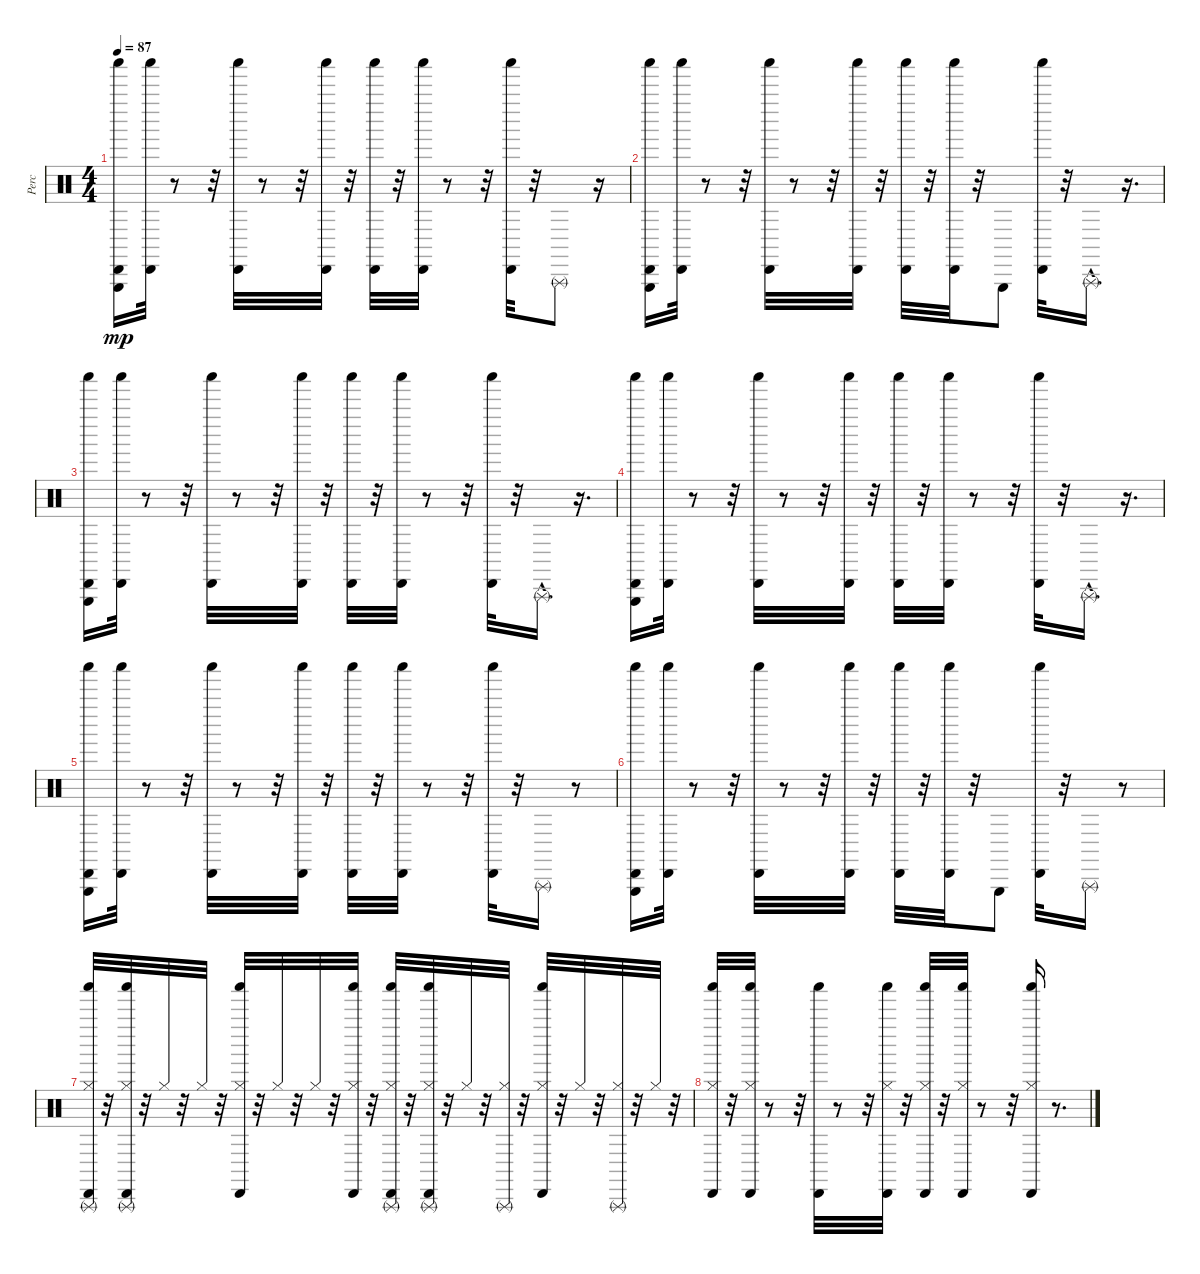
\track ("Perc" "Perc") {instrument percussion}
\staff {score}
\articulation defaults
\ts (4 4)
\tempo 87
\clef neutral
\ks c
("Cabasa (hit)" "Shaker (hit)" "Triangle (hit)").16{dy mp} ("Shaker (hit)" "Cabasa (hit)").32 r.8 r.32 ("Shaker (hit)" "Cabasa (hit)").32 r.8 r.32 ("Shaker (hit)" "Cabasa (hit)").32 r.32 ("Shaker (hit)" "Cabasa (hit)").32 r.32 ("Shaker (hit)" "Cabasa (hit)").32 r.8 r.32 ("Shaker (hit)" "Cabasa (hit)").32 r.32 "Triangle (rnute)".8 r.16 |
("Cabasa (hit)" "Shaker (hit)" "Triangle (hit)").16 ("Shaker (hit)" "Cabasa (hit)").32 r.8 r.32 ("Cabasa (hit)" "Shaker (hit)").32 r.8 r.32 ("Cabasa (hit)" "Shaker (hit)").32 r.32 ("Shaker (hit)" "Cabasa (hit)").32 r.32 ("Shaker (hit)" "Cabasa (hit)").32 r.32 "Triangle (hit)".8 ("Shaker (hit)" "Cabasa (hit)").32 r.32 "Triangle (rnute)"{hac}.16{d} r.16{d} |
("Cabasa (hit)" "Shaker (hit)" "Triangle (hit)").16 ("Shaker (hit)" "Cabasa (hit)").32 r.8 r.32 ("Shaker (hit)" "Cabasa (hit)").32 r.8 r.32 ("Shaker (hit)" "Cabasa (hit)").32 r.32 ("Shaker (hit)" "Cabasa (hit)").32 r.32 ("Shaker (hit)" "Cabasa (hit)").32 r.8 r.32 ("Shaker (hit)" "Cabasa (hit)").32 r.32 "Triangle (rnute)"{hac}.16{d} r.16{d} |
("Cabasa (hit)" "Shaker (hit)" "Triangle (hit)").16 ("Shaker (hit)" "Cabasa (hit)").32 r.8 r.32 ("Cabasa (hit)" "Shaker (hit)").32 r.8 r.32 ("Cabasa (hit)" "Shaker (hit)").32 r.32 ("Shaker (hit)" "Cabasa (hit)").32 r.32 ("Shaker (hit)" "Cabasa (hit)").32 r.8 r.32 ("Shaker (hit)" "Cabasa (hit)").32 r.32 "Triangle (rnute)"{hac}.16{d} r.16{d} |
("Cabasa (hit)" "Shaker (hit)" "Triangle (hit)").16 ("Shaker (hit)" "Cabasa (hit)").32 r.8 r.32 ("Shaker (hit)" "Cabasa (hit)").32 r.8 r.32 ("Shaker (hit)" "Cabasa (hit)").32 r.32 ("Shaker (hit)" "Cabasa (hit)").32 r.32 ("Shaker (hit)" "Cabasa (hit)").32 r.8 r.32 ("Shaker (hit)" "Cabasa (hit)").32 r.32 "Triangle (rnute)".16 r.8 |
("Cabasa (hit)" "Shaker (hit)" "Triangle (hit)").16 ("Shaker (hit)" "Cabasa (hit)").32 r.8 r.32 ("Cabasa (hit)" "Shaker (hit)").32 r.8 r.32 ("Cabasa (hit)" "Shaker (hit)").32 r.32 ("Shaker (hit)" "Cabasa (hit)").32 r.32 ("Shaker (hit)" "Cabasa (hit)").32 r.32 "Triangle (hit)".8 ("Shaker (hit)" "Cabasa (hit)").32 r.32 "Triangle (rnute)".16 r.8 |
("Cabasa (hit)" "Shaker (hit)" "Triangle (rnute)" "Hi-Hat (closed)").32 r.32 ("Shaker (hit)" "Cabasa (hit)" "Triangle (rnute)" "Hi-Hat (closed)").32 r.32 "Hi-Hat (closed)".32 r.32 "Hi-Hat (closed)".32 r.32 ("Shaker (hit)" "Cabasa (hit)" "Hi-Hat (closed)").32 r.32 "Hi-Hat (closed)".32 r.32 "Hi-Hat (closed)".32 r.32 ("Shaker (hit)" "Cabasa (hit)" "Hi-Hat (closed)").32 r.32 ("Shaker (hit)" "Cabasa (hit)" "Triangle (rnute)" "Hi-Hat (closed)").32 r.32 ("Shaker (hit)" "Cabasa (hit)" "Triangle (rnute)" "Hi-Hat (closed)").32 r.32 "Hi-Hat (closed)".32 r.32 ("Triangle (rnute)" "Hi-Hat (closed)").32 r.32 ("Shaker (hit)" "Cabasa (hit)" "Hi-Hat (closed)").32 r.32 "Hi-Hat (closed)".32 r.32 ("Triangle (rnute)" "Hi-Hat (closed)").32 r.32 "Hi-Hat (closed)".32 r.32 |
("Cabasa (hit)" "Shaker (hit)" "Hi-Hat (closed)").32 r.32 ("Shaker (hit)" "Cabasa (hit)" "Hi-Hat (closed)").32 r.8 r.32 ("Cabasa (hit)" "Shaker (hit)").32 r.8 r.32 ("Cabasa (hit)" "Shaker (hit)" "Hi-Hat (closed)").32 r.32 ("Shaker (hit)" "Cabasa (hit)" "Hi-Hat (closed)").32 r.32 ("Shaker (hit)" "Cabasa (hit)" "Hi-Hat (closed)").32 r.8 r.32 ("Shaker (hit)" "Cabasa (hit)" "Hi-Hat (closed)").16 r.8{d}
